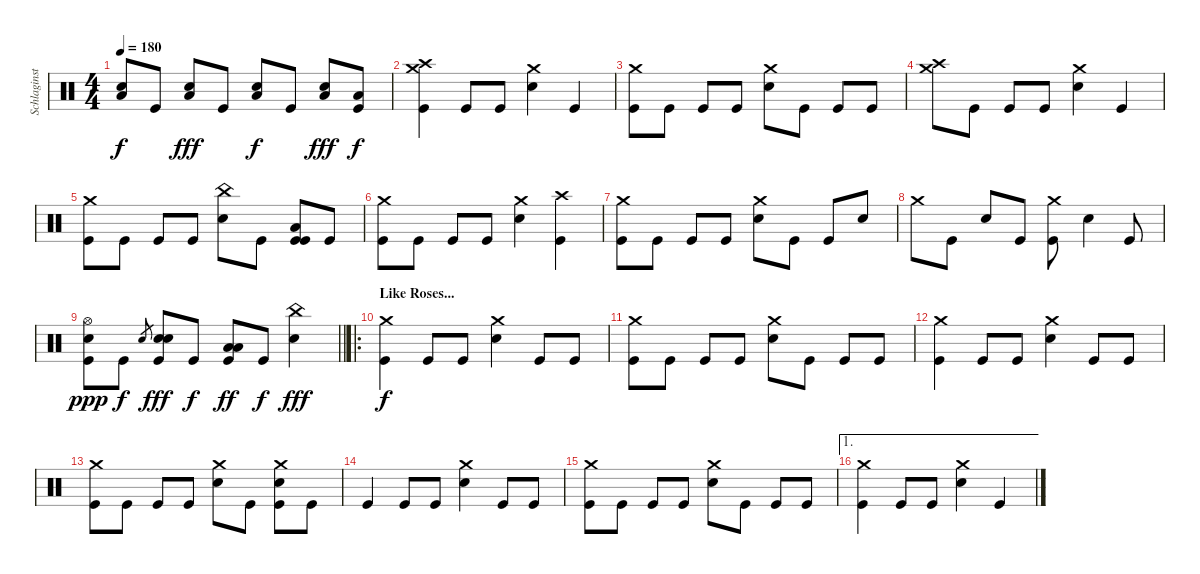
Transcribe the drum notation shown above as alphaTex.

\track ("Schlaginstrumente - Auswahl" "Schlaginst") {instrument percussion}
\staff {score}
\articulation defaults
\ts (4 4)
\tempo 180
\clef neutral
\ks c
("Low Floor Tom (hit)" "Snare (hit) 2").8{dy f} "Kick (hit)".8 ("Snare (hit) 2" "Low Floor Tom (hit)").8{dy fff} "Kick (hit)".8 ("Low Floor Tom (hit)" "Snare (hit) 2").8{dy f} "Kick (hit)".8 ("Snare (hit) 2" "Low Floor Tom (hit)").8{dy fff} ("Kick (hit)" "Low Floor Tom (hit)").8{dy f} |
("Crash medium (hit)" "Kick (hit)" "Crash high (hit)").4 "Kick (hit)".8 "Kick (hit)".8 ("Crash medium (hit)" "Snare (hit) 2").4 "Kick (hit)".4 |
("Crash medium (hit)" "Kick (hit)").8 "Kick (hit)".8 "Kick (hit)".8 "Kick (hit)".8 ("Snare (hit) 2" "Crash medium (hit)").8 "Kick (hit)".8 "Kick (hit)".8 "Kick (hit)".8 |
("Crash medium (hit)" "Crash high (hit)").8 "Kick (hit)".8 "Kick (hit)".8 "Kick (hit)".8 ("Crash medium (hit)" "Snare (hit) 2").4 "Kick (hit)".4 |
("Crash medium (hit)" "Kick (hit)").8 "Kick (hit)".8 "Kick (hit)".8 "Kick (hit)".8 ("Snare (hit) 2" "China (hit)").8 "Kick (hit)".8 ("Kick (hit)" "Low Floor Tom (hit)" "Kick (hit)").8 "Kick (hit)".8 |
("Crash medium (hit)" "Kick (hit)").8 "Kick (hit)".8 "Kick (hit)".8 "Kick (hit)".8 ("Snare (hit) 2" "Crash medium (hit)").4 ("Kick (hit)" "Crash high (hit)").4 |
("Crash medium (hit)" "Kick (hit)").8 "Kick (hit)".8 "Kick (hit)".8 "Kick (hit)".8 ("Snare (hit) 2" "Crash medium (hit)").8 "Kick (hit)".8 "Kick (hit)".8 "Snare (hit) 2".8 |
"Crash medium (hit)".8 "Kick (hit)".8 "Snare (hit) 2".8 "Kick (hit)".8 ("Kick (hit)" "Crash medium (hit)").8 "Snare (hit) 2".4 "Kick (hit)".8 |
\barLineRight lightlight
("Hi-Hat (open)" "Snare (hit) 2" "Kick (hit)").8{dy ppp} "Kick (hit)".8{dy f} "Electric Snare (hit)".8{gr} ("Snare (hit) 2" "Kick (hit)" "Electric Snare (hit)").8{dy fff} "Kick (hit)".8{dy f} ("Kick (hit)" "Low Tom (hit)" "Low Floor Tom (hit)").8{dy ff} "Kick (hit)".8{dy f} ("Snare (hit) 2" "China (hit)").4{dy fff} |
\ro
\section ("" "Like Roses...")
("Crash medium (hit)" "Kick (hit)").4{dy f} "Kick (hit)".8 "Kick (hit)".8 ("Snare (hit) 2" "Crash medium (hit)").4 "Kick (hit)".8 "Kick (hit)".8 |
("Crash medium (hit)" "Kick (hit)").8 "Kick (hit)".8 "Kick (hit)".8 "Kick (hit)".8 ("Snare (hit) 2" "Crash medium (hit)").8 "Kick (hit)".8 "Kick (hit)".8 "Kick (hit)".8 |
("Crash medium (hit)" "Kick (hit)").4 "Kick (hit)".8 "Kick (hit)".8 ("Snare (hit) 2" "Crash medium (hit)").4 "Kick (hit)".8 "Kick (hit)".8 |
("Crash medium (hit)" "Kick (hit)").8 "Kick (hit)".8 "Kick (hit)".8 "Kick (hit)".8 ("Snare (hit) 2" "Crash medium (hit)").8 "Kick (hit)".8 ("Kick (hit)" "Snare (hit) 2" "Crash medium (hit)").8 "Kick (hit)".8 |
"Kick (hit)".4 "Kick (hit)".8 "Kick (hit)".8 ("Snare (hit) 2" "Crash medium (hit)").4 "Kick (hit)".8 "Kick (hit)".8 |
("Crash medium (hit)" "Kick (hit)").8 "Kick (hit)".8 "Kick (hit)".8 "Kick (hit)".8 ("Snare (hit) 2" "Crash medium (hit)").8 "Kick (hit)".8 "Kick (hit)".8 "Kick (hit)".8 |
\ae 1
("Crash medium (hit)" "Kick (hit)").4 "Kick (hit)".8 "Kick (hit)".8 ("Snare (hit) 2" "Crash medium (hit)").4 "Kick (hit)".4
